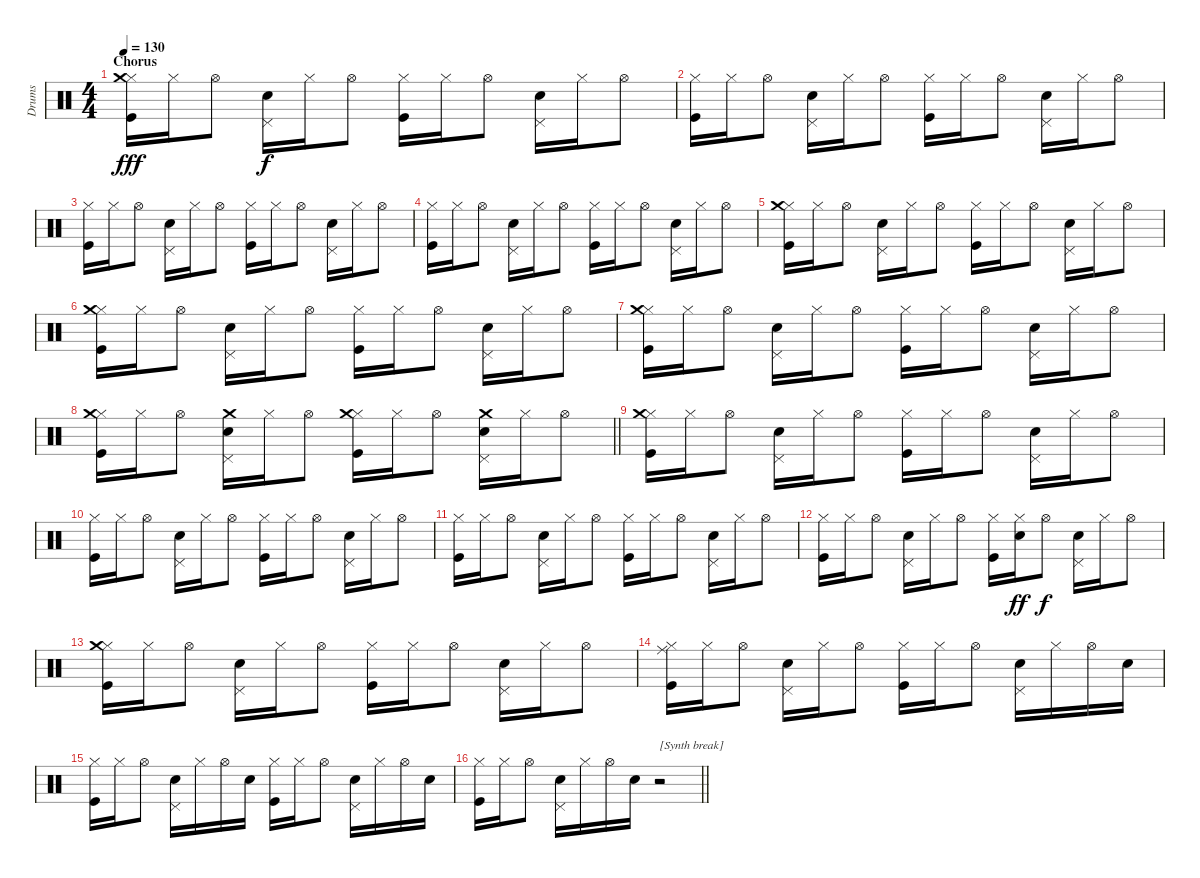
\track ("Drums" "Drums") {instrument percussion}
\staff {score}
\articulation defaults
\ts (4 4)
\section ("" "Chorus")
\tempo 130
\clef neutral
\ks c
("Hi-Hat (closed)" "Crash medium (hit)" "Kick (hit)").16{dy fff} "Hi-Hat (closed)".16 "Hi-Hat (open)".8 ("Pedal Hi-Hat (hit)" "Electric Snare (hit)").16{dy f} "Hi-Hat (closed)".16 "Hi-Hat (open)".8 ("Hi-Hat (closed)" "Kick (hit)").16 "Hi-Hat (closed)".16 "Hi-Hat (open)".8 ("Pedal Hi-Hat (hit)" "Electric Snare (hit)").16 "Hi-Hat (closed)".16 "Hi-Hat (open)".8 |
("Hi-Hat (closed)" "Kick (hit)").16 "Hi-Hat (closed)".16 "Hi-Hat (open)".8 ("Pedal Hi-Hat (hit)" "Electric Snare (hit)").16 "Hi-Hat (closed)".16 "Hi-Hat (open)".8 ("Hi-Hat (closed)" "Kick (hit)").16 "Hi-Hat (closed)".16 "Hi-Hat (open)".8 ("Pedal Hi-Hat (hit)" "Electric Snare (hit)").16 "Hi-Hat (closed)".16 "Hi-Hat (open)".8 |
("Hi-Hat (closed)" "Kick (hit)").16 "Hi-Hat (closed)".16 "Hi-Hat (open)".8 ("Pedal Hi-Hat (hit)" "Electric Snare (hit)").16 "Hi-Hat (closed)".16 "Hi-Hat (open)".8 ("Hi-Hat (closed)" "Kick (hit)").16 "Hi-Hat (closed)".16 "Hi-Hat (open)".8 ("Pedal Hi-Hat (hit)" "Electric Snare (hit)").16 "Hi-Hat (closed)".16 "Hi-Hat (open)".8 |
("Hi-Hat (closed)" "Kick (hit)").16 "Hi-Hat (closed)".16 "Hi-Hat (open)".8 ("Pedal Hi-Hat (hit)" "Electric Snare (hit)").16 "Hi-Hat (closed)".16 "Hi-Hat (open)".8 ("Hi-Hat (closed)" "Kick (hit)").16 "Hi-Hat (closed)".16 "Hi-Hat (open)".8 ("Pedal Hi-Hat (hit)" "Electric Snare (hit)").16 "Hi-Hat (closed)".16 "Hi-Hat (open)".8 |
("Hi-Hat (closed)" "Crash medium (hit)" "Kick (hit)").16 "Hi-Hat (closed)".16 "Hi-Hat (open)".8 ("Pedal Hi-Hat (hit)" "Electric Snare (hit)").16 "Hi-Hat (closed)".16 "Hi-Hat (open)".8 ("Hi-Hat (closed)" "Kick (hit)").16 "Hi-Hat (closed)".16 "Hi-Hat (open)".8 ("Pedal Hi-Hat (hit)" "Electric Snare (hit)").16 "Hi-Hat (closed)".16 "Hi-Hat (open)".8 |
("Hi-Hat (closed)" "Crash medium (hit)" "Kick (hit)").16 "Hi-Hat (closed)".16 "Hi-Hat (open)".8 ("Pedal Hi-Hat (hit)" "Electric Snare (hit)").16 "Hi-Hat (closed)".16 "Hi-Hat (open)".8 ("Hi-Hat (closed)" "Kick (hit)").16 "Hi-Hat (closed)".16 "Hi-Hat (open)".8 ("Pedal Hi-Hat (hit)" "Electric Snare (hit)").16 "Hi-Hat (closed)".16 "Hi-Hat (open)".8 |
("Hi-Hat (closed)" "Crash medium (hit)" "Kick (hit)").16 "Hi-Hat (closed)".16 "Hi-Hat (open)".8 ("Pedal Hi-Hat (hit)" "Electric Snare (hit)").16 "Hi-Hat (closed)".16 "Hi-Hat (open)".8 ("Hi-Hat (closed)" "Kick (hit)").16 "Hi-Hat (closed)".16 "Hi-Hat (open)".8 ("Pedal Hi-Hat (hit)" "Electric Snare (hit)").16 "Hi-Hat (closed)".16 "Hi-Hat (open)".8 |
\barLineRight lightlight
("Hi-Hat (closed)" "Crash medium (hit)" "Kick (hit)").16 "Hi-Hat (closed)".16 "Hi-Hat (open)".8 ("Pedal Hi-Hat (hit)" "Crash medium (hit)" "Electric Snare (hit)").16 "Hi-Hat (closed)".16 "Hi-Hat (open)".8 ("Hi-Hat (closed)" "Crash medium (hit)" "Kick (hit)").16 "Hi-Hat (closed)".16 "Hi-Hat (open)".8 ("Pedal Hi-Hat (hit)" "Crash medium (hit)" "Electric Snare (hit)").16 "Hi-Hat (closed)".16 "Hi-Hat (open)".8 |
("Hi-Hat (closed)" "Crash medium (hit)" "Kick (hit)").16 "Hi-Hat (closed)".16 "Hi-Hat (open)".8 ("Pedal Hi-Hat (hit)" "Electric Snare (hit)").16 "Hi-Hat (closed)".16 "Hi-Hat (open)".8 ("Hi-Hat (closed)" "Kick (hit)").16 "Hi-Hat (closed)".16 "Hi-Hat (open)".8 ("Pedal Hi-Hat (hit)" "Electric Snare (hit)").16 "Hi-Hat (closed)".16 "Hi-Hat (open)".8 |
("Hi-Hat (closed)" "Kick (hit)").16 "Hi-Hat (closed)".16 "Hi-Hat (open)".8 ("Pedal Hi-Hat (hit)" "Electric Snare (hit)").16 "Hi-Hat (closed)".16 "Hi-Hat (open)".8 ("Hi-Hat (closed)" "Kick (hit)").16 "Hi-Hat (closed)".16 "Hi-Hat (open)".8 ("Pedal Hi-Hat (hit)" "Electric Snare (hit)").16 "Hi-Hat (closed)".16 "Hi-Hat (open)".8 |
("Hi-Hat (closed)" "Kick (hit)").16 "Hi-Hat (closed)".16 "Hi-Hat (open)".8 ("Pedal Hi-Hat (hit)" "Electric Snare (hit)").16 "Hi-Hat (closed)".16 "Hi-Hat (open)".8 ("Hi-Hat (closed)" "Kick (hit)").16 "Hi-Hat (closed)".16 "Hi-Hat (open)".8 ("Pedal Hi-Hat (hit)" "Electric Snare (hit)").16 "Hi-Hat (closed)".16 "Hi-Hat (open)".8 |
("Hi-Hat (closed)" "Kick (hit)").16 "Hi-Hat (closed)".16 "Hi-Hat (open)".8 ("Pedal Hi-Hat (hit)" "Electric Snare (hit)").16 "Hi-Hat (closed)".16 "Hi-Hat (open)".8 ("Hi-Hat (closed)" "Kick (hit)").16 ("Hi-Hat (closed)" "Electric Snare (hit)").16{dy ff} "Hi-Hat (open)".8{dy f} ("Pedal Hi-Hat (hit)" "Electric Snare (hit)").16 "Hi-Hat (closed)".16 "Hi-Hat (open)".8 |
("Hi-Hat (closed)" "Crash medium (hit)" "Kick (hit)").16 "Hi-Hat (closed)".16 "Hi-Hat (open)".8 ("Pedal Hi-Hat (hit)" "Electric Snare (hit)").16 "Hi-Hat (closed)".16 "Hi-Hat (open)".8 ("Hi-Hat (closed)" "Kick (hit)").16 "Hi-Hat (closed)".16 "Hi-Hat (open)".8 ("Pedal Hi-Hat (hit)" "Electric Snare (hit)").16 "Hi-Hat (closed)".16 "Hi-Hat (open)".8 |
("Hi-Hat (closed)" "Ride (middle)" "Kick (hit)").16 "Hi-Hat (closed)".16 "Hi-Hat (open)".8 ("Pedal Hi-Hat (hit)" "Electric Snare (hit)").16 "Hi-Hat (closed)".16 "Hi-Hat (open)".8 ("Hi-Hat (closed)" "Kick (hit)").16 "Hi-Hat (closed)".16 "Hi-Hat (open)".8 ("Pedal Hi-Hat (hit)" "Electric Snare (hit)").16 "Hi-Hat (closed)".16 "Hi-Hat (open)".16 "Electric Snare (hit)".16 |
("Hi-Hat (closed)" "Kick (hit)").16 "Hi-Hat (closed)".16 "Hi-Hat (open)".8 ("Pedal Hi-Hat (hit)" "Electric Snare (hit)").16 "Hi-Hat (closed)".16 "Hi-Hat (open)".16 "Electric Snare (hit)".16 ("Hi-Hat (closed)" "Kick (hit)").16 "Hi-Hat (closed)".16 "Hi-Hat (open)".8 ("Pedal Hi-Hat (hit)" "Electric Snare (hit)").16 "Hi-Hat (closed)".16 "Hi-Hat (open)".16 "Electric Snare (hit)".16 |
\barLineRight lightlight
("Hi-Hat (closed)" "Kick (hit)").16 "Hi-Hat (closed)".16 "Hi-Hat (open)".8 ("Pedal Hi-Hat (hit)" "Electric Snare (hit)").16 "Hi-Hat (closed)".16 "Hi-Hat (open)".16 "Electric Snare (hit)".16 r.2{txt "[Synth break]"}
